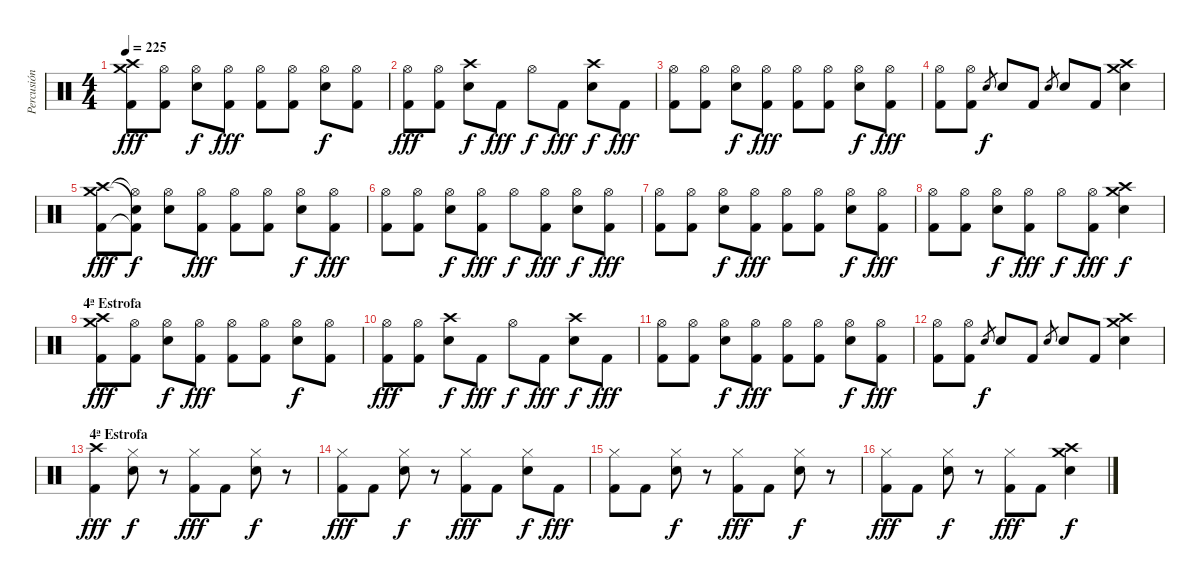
\track ("Percusión" "Percusión") {instrument percussion}
\staff {score}
\articulation defaults
\ts (4 4)
\tempo 225
\clef neutral
\ks c
("Kick (hit) 2" "Crash medium (hit)" "Crash high (hit)").8{dy fff} ("Kick (hit) 2" "Hi-Hat (open)").8 ("Electric Snare (hit)" "Hi-Hat (open)").8{dy f} ("Kick (hit) 2" "Hi-Hat (open)").8{dy fff} ("Kick (hit) 2" "Hi-Hat (open)").8 ("Kick (hit) 2" "Hi-Hat (open)").8 ("Electric Snare (hit)" "Hi-Hat (open)").8{dy f} ("Kick (hit) 2" "Hi-Hat (open)").8 |
("Kick (hit) 2" "Hi-Hat (open)").8{dy fff} ("Kick (hit) 2" "Hi-Hat (open)").8 ("Electric Snare (hit)" "Crash high (hit)").8{dy f} "Kick (hit) 2".8{dy fff} "Hi-Hat (open)".8{dy f} "Kick (hit) 2".8{dy fff} ("Electric Snare (hit)" "Crash high (hit)").8{dy f} "Kick (hit) 2".8{dy fff} |
("Kick (hit) 2" "Hi-Hat (open)").8 ("Kick (hit) 2" "Hi-Hat (open)").8 ("Electric Snare (hit)" "Hi-Hat (open)").8{dy f} ("Kick (hit) 2" "Hi-Hat (open)").8{dy fff} ("Kick (hit) 2" "Hi-Hat (open)").8 ("Kick (hit) 2" "Hi-Hat (open)").8 ("Electric Snare (hit)" "Hi-Hat (open)").8{dy f} ("Kick (hit) 2" "Hi-Hat (open)").8{dy fff} |
("Kick (hit) 2" "Hi-Hat (open)").8 ("Kick (hit) 2" "Hi-Hat (open)").8 "Electric Snare (hit)".8{gr dy f} "Electric Snare (hit)".8 "Kick (hit) 2".8 "Electric Snare (hit)".8{gr} "Electric Snare (hit)".8 "Kick (hit) 2".8 ("Electric Snare (hit)" "Crash high (hit)" "Crash medium (hit)").4 |
("Kick (hit) 2" "Crash medium (hit)" "Crash high (hit)").8{dy fff} ("Kick (hit) 2"{t} "Hi-Hat (open)"{t} "Snare (hit)"{t}).8{dy f} ("Electric Snare (hit)" "Hi-Hat (open)").8 ("Kick (hit) 2" "Hi-Hat (open)").8{dy fff} ("Kick (hit) 2" "Hi-Hat (open)").8 ("Kick (hit) 2" "Hi-Hat (open)").8 ("Electric Snare (hit)" "Hi-Hat (open)").8{dy f} ("Kick (hit) 2" "Hi-Hat (open)").8{dy fff} |
("Kick (hit) 2" "Hi-Hat (open)").8 ("Kick (hit) 2" "Hi-Hat (open)").8 ("Electric Snare (hit)" "Hi-Hat (open)").8{dy f} ("Kick (hit) 2" "Hi-Hat (open)").8{dy fff} "Hi-Hat (open)".8{dy f} ("Kick (hit) 2" "Hi-Hat (open)").8{dy fff} ("Electric Snare (hit)" "Hi-Hat (open)").8{dy f} ("Kick (hit) 2" "Hi-Hat (open)").8{dy fff} |
("Kick (hit) 2" "Hi-Hat (open)").8 ("Kick (hit) 2" "Hi-Hat (open)").8 ("Electric Snare (hit)" "Hi-Hat (open)").8{dy f} ("Kick (hit) 2" "Hi-Hat (open)").8{dy fff} ("Kick (hit) 2" "Hi-Hat (open)").8 ("Kick (hit) 2" "Hi-Hat (open)").8 ("Electric Snare (hit)" "Hi-Hat (open)").8{dy f} ("Kick (hit) 2" "Hi-Hat (open)").8{dy fff} |
("Kick (hit) 2" "Hi-Hat (open)").8 ("Kick (hit) 2" "Hi-Hat (open)").8 ("Electric Snare (hit)" "Hi-Hat (open)").8{dy f} ("Kick (hit) 2" "Hi-Hat (open)").8{dy fff} "Hi-Hat (open)".8{dy f} ("Kick (hit) 2" "Hi-Hat (open)").8{dy fff} ("Electric Snare (hit)" "Crash medium (hit)" "Crash high (hit)").4{dy f} |
\section ("" "4ª Estrofa")
("Kick (hit) 2" "Crash medium (hit)" "Crash high (hit)").8{dy fff} ("Kick (hit) 2" "Hi-Hat (open)").8 ("Electric Snare (hit)" "Hi-Hat (open)").8{dy f} ("Kick (hit) 2" "Hi-Hat (open)").8{dy fff} ("Kick (hit) 2" "Hi-Hat (open)").8 ("Kick (hit) 2" "Hi-Hat (open)").8 ("Electric Snare (hit)" "Hi-Hat (open)").8{dy f} ("Kick (hit) 2" "Hi-Hat (open)").8 |
("Kick (hit) 2" "Hi-Hat (open)").8{dy fff} ("Kick (hit) 2" "Hi-Hat (open)").8 ("Electric Snare (hit)" "Crash high (hit)").8{dy f} "Kick (hit) 2".8{dy fff} "Hi-Hat (open)".8{dy f} "Kick (hit) 2".8{dy fff} ("Electric Snare (hit)" "Crash high (hit)").8{dy f} "Kick (hit) 2".8{dy fff} |
("Kick (hit) 2" "Hi-Hat (open)").8 ("Kick (hit) 2" "Hi-Hat (open)").8 ("Electric Snare (hit)" "Hi-Hat (open)").8{dy f} ("Kick (hit) 2" "Hi-Hat (open)").8{dy fff} ("Kick (hit) 2" "Hi-Hat (open)").8 ("Kick (hit) 2" "Hi-Hat (open)").8 ("Electric Snare (hit)" "Hi-Hat (open)").8{dy f} ("Kick (hit) 2" "Hi-Hat (open)").8{dy fff} |
("Kick (hit) 2" "Hi-Hat (open)").8 ("Kick (hit) 2" "Hi-Hat (open)").8 "Electric Snare (hit)".8{gr dy f} "Electric Snare (hit)".8 "Kick (hit) 2".8 "Electric Snare (hit)".8{gr} "Electric Snare (hit)".8 "Kick (hit) 2".8 ("Electric Snare (hit)" "Crash high (hit)" "Crash medium (hit)").4 |
\section ("" "4ª Estrofa")
("Crash high (hit)" "Kick (hit) 2").4{dy fff} ("Electric Snare (hit)" "Hi-Hat (closed)").8{dy f} r.8 ("Kick (hit) 2" "Hi-Hat (closed)").8{dy fff} "Kick (hit) 2".8 ("Electric Snare (hit)" "Hi-Hat (closed)").8{dy f} r.8 |
("Kick (hit) 2" "Hi-Hat (closed)").8{dy fff} "Kick (hit) 2".8 ("Electric Snare (hit)" "Hi-Hat (closed)").8{dy f} r.8 ("Kick (hit) 2" "Hi-Hat (closed)").8{dy fff} "Kick (hit) 2".8 ("Electric Snare (hit)" "Hi-Hat (closed)").8{dy f} "Kick (hit) 2".8{dy fff} |
("Kick (hit) 2" "Hi-Hat (closed)").8 "Kick (hit) 2".8 ("Electric Snare (hit)" "Hi-Hat (closed)").8{dy f} r.8 ("Kick (hit) 2" "Hi-Hat (closed)").8{dy fff} "Kick (hit) 2".8 ("Electric Snare (hit)" "Hi-Hat (closed)").8{dy f} r.8 |
("Kick (hit) 2" "Hi-Hat (closed)").8{dy fff} "Kick (hit) 2".8 ("Electric Snare (hit)" "Hi-Hat (closed)").8{dy f} r.8 ("Kick (hit) 2" "Hi-Hat (closed)").8{dy fff} "Kick (hit) 2".8 ("Electric Snare (hit)" "Crash medium (hit)" "Crash high (hit)").4{dy f}
